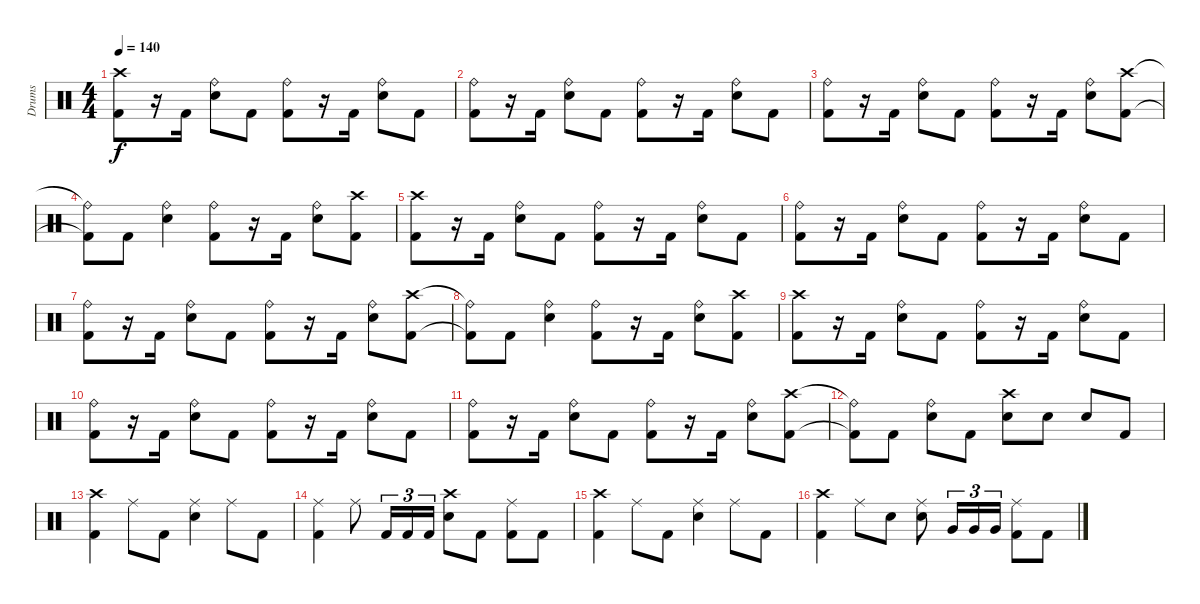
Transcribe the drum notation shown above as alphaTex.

\track ("Drums" "Drums") {instrument percussion}
\staff {score}
\articulation defaults
\ts (4 4)
\tempo 140
\clef neutral
\ks c
("Crash high (hit)" "Kick (hit) 2").8{dy f} r.16 "Kick (hit) 2".16 ("Ride (bell)" "Snare (hit) 2").8 "Kick (hit) 2".8 ("Ride (bell)" "Kick (hit) 2").8 r.16 "Kick (hit) 2".16 ("Ride (bell)" "Snare (hit) 2").8 "Kick (hit) 2".8 |
("Ride (bell)" "Kick (hit) 2").8 r.16 "Kick (hit) 2".16 ("Ride (bell)" "Snare (hit) 2").8 "Kick (hit) 2".8 ("Ride (bell)" "Kick (hit) 2").8 r.16 "Kick (hit) 2".16 ("Ride (bell)" "Snare (hit) 2").8 "Kick (hit) 2".8 |
("Ride (bell)" "Kick (hit) 2").8 r.16 "Kick (hit) 2".16 ("Ride (bell)" "Snare (hit) 2").8 "Kick (hit) 2".8 ("Ride (bell)" "Kick (hit) 2").8 r.16 "Kick (hit) 2".16 ("Ride (bell)" "Snare (hit) 2").8 ("Crash high (hit)" "Kick (hit) 2").8 |
("Ride (bell)"{t} "Kick (hit) 2"{t}).8 "Kick (hit) 2".8 ("Ride (bell)" "Snare (hit) 2").4 ("Ride (bell)" "Kick (hit) 2").8 r.16 "Kick (hit) 2".16 ("Ride (bell)" "Snare (hit) 2").8 ("Crash high (hit)" "Kick (hit) 2").8 |
("Crash high (hit)" "Kick (hit) 2").8 r.16 "Kick (hit) 2".16 ("Ride (bell)" "Snare (hit) 2").8 "Kick (hit) 2".8 ("Ride (bell)" "Kick (hit) 2").8 r.16 "Kick (hit) 2".16 ("Ride (bell)" "Snare (hit) 2").8 "Kick (hit) 2".8 |
("Ride (bell)" "Kick (hit) 2").8 r.16 "Kick (hit) 2".16 ("Ride (bell)" "Snare (hit) 2").8 "Kick (hit) 2".8 ("Ride (bell)" "Kick (hit) 2").8 r.16 "Kick (hit) 2".16 ("Ride (bell)" "Snare (hit) 2").8 "Kick (hit) 2".8 |
("Ride (bell)" "Kick (hit) 2").8 r.16 "Kick (hit) 2".16 ("Ride (bell)" "Snare (hit) 2").8 "Kick (hit) 2".8 ("Ride (bell)" "Kick (hit) 2").8 r.16 "Kick (hit) 2".16 ("Ride (bell)" "Snare (hit) 2").8 ("Crash high (hit)" "Kick (hit) 2").8 |
("Ride (bell)"{t} "Kick (hit) 2"{t}).8 "Kick (hit) 2".8 ("Ride (bell)" "Snare (hit) 2").4 ("Ride (bell)" "Kick (hit) 2").8 r.16 "Kick (hit) 2".16 ("Ride (bell)" "Snare (hit) 2").8 ("Crash high (hit)" "Kick (hit) 2").8 |
("Crash high (hit)" "Kick (hit) 2").8 r.16 "Kick (hit) 2".16 ("Ride (bell)" "Snare (hit) 2").8 "Kick (hit) 2".8 ("Ride (bell)" "Kick (hit) 2").8 r.16 "Kick (hit) 2".16 ("Ride (bell)" "Snare (hit) 2").8 "Kick (hit) 2".8 |
("Ride (bell)" "Kick (hit) 2").8 r.16 "Kick (hit) 2".16 ("Ride (bell)" "Snare (hit) 2").8 "Kick (hit) 2".8 ("Ride (bell)" "Kick (hit) 2").8 r.16 "Kick (hit) 2".16 ("Ride (bell)" "Snare (hit) 2").8 "Kick (hit) 2".8 |
("Ride (bell)" "Kick (hit) 2").8 r.16 "Kick (hit) 2".16 ("Ride (bell)" "Snare (hit) 2").8 "Kick (hit) 2".8 ("Ride (bell)" "Kick (hit) 2").8 r.16 "Kick (hit) 2".16 ("Ride (bell)" "Snare (hit) 2").8 ("Crash high (hit)" "Kick (hit) 2").8 |
("Ride (bell)"{t} "Kick (hit) 2"{t}).8 "Kick (hit) 2".8 ("Ride (bell)" "Snare (hit) 2").8 "Kick (hit) 2".8 ("Crash high (hit)" "Snare (hit) 2").8 "Snare (hit) 2".8 "Snare (hit) 2".8 "Kick (hit) 2".8 |
("Crash high (hit)" "Kick (hit) 2").4 "Ride (middle)".8 "Kick (hit) 2".8 ("Ride (middle)" "Snare (hit) 2").4 "Ride (middle)".8 "Kick (hit) 2".8 |
("Ride (middle)" "Kick (hit) 2").4 "Ride (middle)".8 "Kick (hit) 2".16{tu (3 2)} "Kick (hit) 2".16{tu (3 2)} "Kick (hit) 2".16{tu (3 2)} ("Crash high (hit)" "Snare (hit) 2").8 "Kick (hit) 2".8 ("Ride (middle)" "Kick (hit) 2").8 "Kick (hit) 2".8 |
("Crash high (hit)" "Kick (hit) 2").4 "Ride (middle)".8 "Kick (hit) 2".8 ("Ride (middle)" "Snare (hit) 2").4 "Ride (middle)".8 "Kick (hit) 2".8 |
("Crash high (hit)" "Kick (hit) 2").4 "Ride (middle)".8 "Snare (hit) 2".8 ("Ride (middle)" "Snare (hit) 2").8 "Very Low Tom (hit)".16{tu (3 2)} "Very Low Tom (hit)".16{tu (3 2)} "Very Low Tom (hit)".16{tu (3 2)} ("Ride (middle)" "Kick (hit) 2").8 "Kick (hit) 2".8
